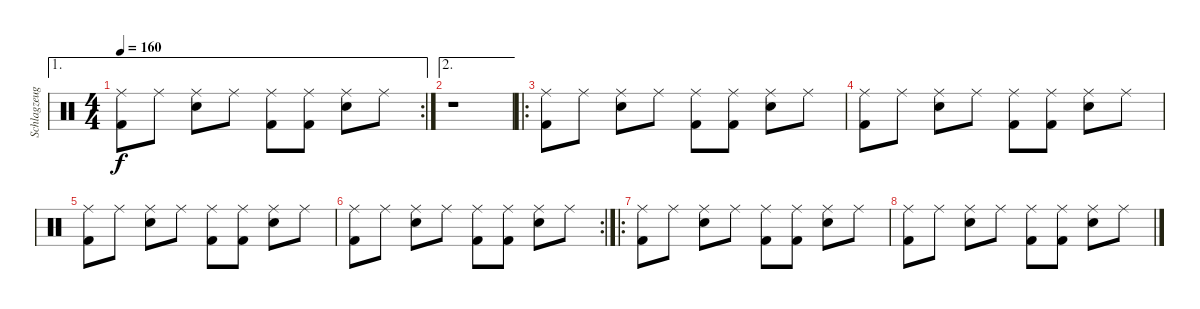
\track ("Schlagzeug" "Schlagzeug") {instrument percussion}
\staff {score}
\articulation defaults
\ae 1
\rc 2
\ts (4 4)
\tempo 160
\clef neutral
\ks c
("Ride (middle)" "Kick (hit) 2").8{dy f} "Ride (middle)".8 ("Ride (middle)" "Snare (hit) 2").8 "Ride (middle)".8 ("Ride (middle)" "Kick (hit) 2").8 ("Ride (middle)" "Kick (hit) 2").8 ("Ride (middle)" "Snare (hit) 2").8 "Ride (middle)".8 |
\ae 2
r.1 |
\ro
("Ride (middle)" "Kick (hit) 2").8 "Ride (middle)".8 ("Ride (middle)" "Snare (hit) 2").8 "Ride (middle)".8 ("Ride (middle)" "Kick (hit) 2").8 ("Ride (middle)" "Kick (hit) 2").8 ("Ride (middle)" "Snare (hit) 2").8 "Ride (middle)".8 |
("Ride (middle)" "Kick (hit) 2").8 "Ride (middle)".8 ("Ride (middle)" "Snare (hit) 2").8 "Ride (middle)".8 ("Ride (middle)" "Kick (hit) 2").8 ("Ride (middle)" "Kick (hit) 2").8 ("Ride (middle)" "Snare (hit) 2").8 "Ride (middle)".8 |
("Ride (middle)" "Kick (hit) 2").8 "Ride (middle)".8 ("Ride (middle)" "Snare (hit) 2").8 "Ride (middle)".8 ("Ride (middle)" "Kick (hit) 2").8 ("Ride (middle)" "Kick (hit) 2").8 ("Ride (middle)" "Snare (hit) 2").8 "Ride (middle)".8 |
\rc 2
("Ride (middle)" "Kick (hit) 2").8 "Ride (middle)".8 ("Ride (middle)" "Snare (hit) 2").8 "Ride (middle)".8 ("Ride (middle)" "Kick (hit) 2").8 ("Ride (middle)" "Kick (hit) 2").8 ("Ride (middle)" "Snare (hit) 2").8 "Ride (middle)".8 |
\ro
("Ride (middle)" "Kick (hit) 2").8 "Ride (middle)".8 ("Ride (middle)" "Snare (hit) 2").8 "Ride (middle)".8 ("Ride (middle)" "Kick (hit) 2").8 ("Ride (middle)" "Kick (hit) 2").8 ("Ride (middle)" "Snare (hit) 2").8 "Ride (middle)".8 |
("Ride (middle)" "Kick (hit) 2").8 "Ride (middle)".8 ("Ride (middle)" "Snare (hit) 2").8 "Ride (middle)".8 ("Ride (middle)" "Kick (hit) 2").8 ("Ride (middle)" "Kick (hit) 2").8 ("Ride (middle)" "Snare (hit) 2").8 "Ride (middle)".8
